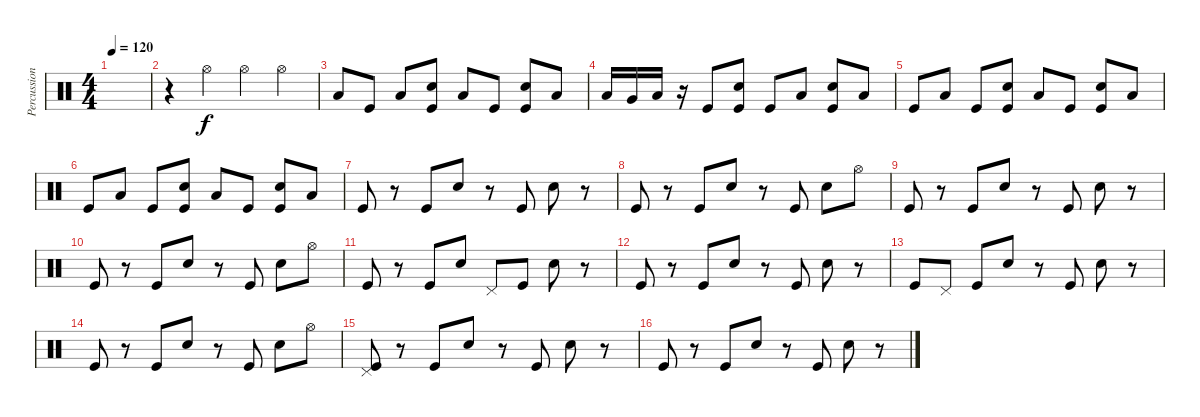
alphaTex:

\track ("Percussion" "Percussion") {instrument percussion}
\staff {score}
\articulation defaults
\ts (4 4)
\tempo 120
\clef neutral
\ks c
|
r.4 "Hi-Hat (open)".4 "Hi-Hat (open)".4 "Hi-Hat (open)".4 |
"Low Floor Tom (hit)".8 "Kick (hit)".8 "Low Floor Tom (hit)".8 ("Electric Snare (hit)" "Kick (hit)").8 "Low Floor Tom (hit)".8 "Kick (hit)".8 ("Electric Snare (hit)" "Kick (hit)").8 "Low Floor Tom (hit)".8 |
"Low Floor Tom (hit)".16 "Very Low Tom (hit)".16 "Low Tom (hit)".16 r.16 "Kick (hit)".8 ("Electric Snare (hit)" "Kick (hit)").8 "Kick (hit)".8 "Low Floor Tom (hit)".8 ("Electric Snare (hit)" "Kick (hit)").8 "Low Floor Tom (hit)".8 |
"Kick (hit)".8 "Low Floor Tom (hit)".8 "Kick (hit)".8 ("Electric Snare (hit)" "Kick (hit)").8 "Low Floor Tom (hit)".8 "Kick (hit)".8 ("Electric Snare (hit)" "Kick (hit)").8 "Low Floor Tom (hit)".8 |
"Kick (hit)".8 "Low Floor Tom (hit)".8 "Kick (hit)".8 ("Electric Snare (hit)" "Kick (hit)").8 "Low Floor Tom (hit)".8 "Kick (hit)".8 ("Electric Snare (hit)" "Kick (hit)").8 "Low Floor Tom (hit)".8 |
"Kick (hit)".8 r.8 "Kick (hit)".8 "Electric Snare (hit)".8 r.8 "Kick (hit)".8 "Electric Snare (hit)".8 r.8 |
"Kick (hit)".8 r.8 "Kick (hit)".8 "Electric Snare (hit)".8 r.8 "Kick (hit)".8 "Electric Snare (hit)".8 "Hi-Hat (open)".8 |
"Kick (hit)".8 r.8 "Kick (hit)".8 "Electric Snare (hit)".8 r.8 "Kick (hit)".8 "Electric Snare (hit)".8 r.8 |
"Kick (hit)".8 r.8 "Kick (hit)".8 "Electric Snare (hit)".8 r.8 "Kick (hit)".8 "Electric Snare (hit)".8 "Hi-Hat (open)".8 |
"Kick (hit)".8 r.8 "Kick (hit)".8 "Electric Snare (hit)".8 "Pedal Hi-Hat (hit)".8 "Kick (hit)".8 "Electric Snare (hit)".8 r.8 |
"Kick (hit)".8 r.8 "Kick (hit)".8 "Electric Snare (hit)".8 r.8 "Kick (hit)".8 "Electric Snare (hit)".8 r.8 |
"Kick (hit)".8 "Pedal Hi-Hat (hit)".8 "Kick (hit)".8 "Electric Snare (hit)".8 r.8 "Kick (hit)".8 "Electric Snare (hit)".8 r.8 |
"Kick (hit)".8 r.8 "Kick (hit)".8 "Electric Snare (hit)".8 r.8 "Kick (hit)".8 "Electric Snare (hit)".8 "Hi-Hat (open)".8 |
("Pedal Hi-Hat (hit)" "Kick (hit)").8 r.8 "Kick (hit)".8 "Electric Snare (hit)".8 r.8 "Kick (hit)".8 "Electric Snare (hit)".8 r.8 |
"Kick (hit)".8 r.8 "Kick (hit)".8 "Electric Snare (hit)".8 r.8 "Kick (hit)".8 "Electric Snare (hit)".8 r.8
